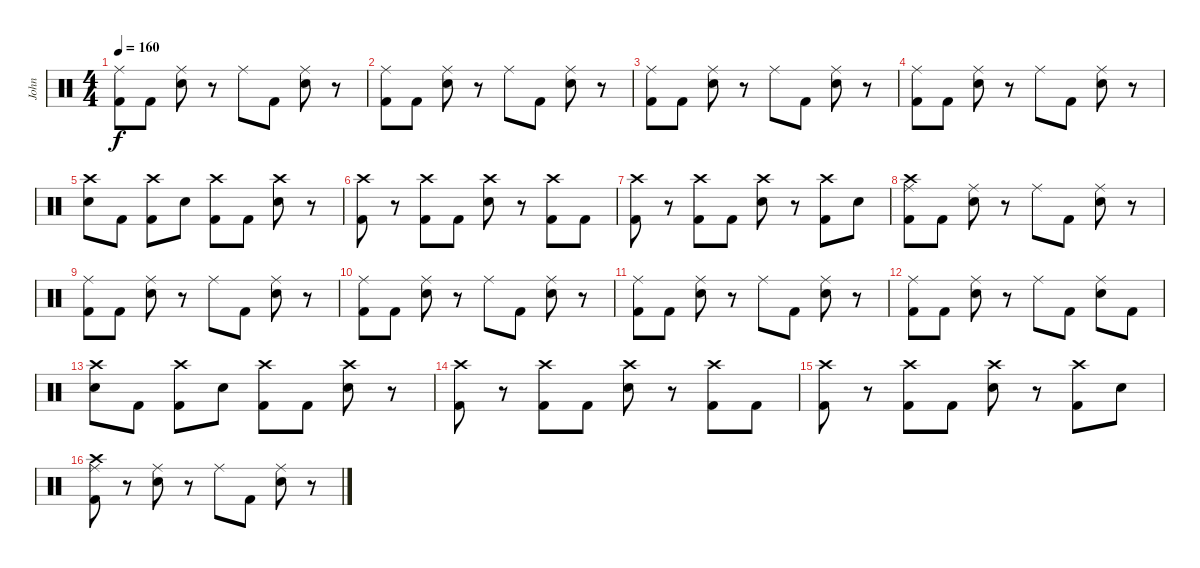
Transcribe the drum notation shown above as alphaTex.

\track ("John" "John") {instrument percussion}
\staff {score}
\articulation defaults
\ts (4 4)
\tempo 160
\clef neutral
\ks c
("Ride (middle)" "Kick (hit) 2").8{dy f} "Kick (hit) 2".8 ("Ride (middle)" "Snare (hit) 2").8 r.8 "Ride (middle)".8 "Kick (hit) 2".8 ("Ride (middle)" "Snare (hit) 2").8 r.8 |
("Ride (middle)" "Kick (hit) 2").8 "Kick (hit) 2".8 ("Ride (middle)" "Snare (hit) 2").8 r.8 "Ride (middle)".8 "Kick (hit) 2".8 ("Ride (middle)" "Snare (hit) 2").8 r.8 |
("Ride (middle)" "Kick (hit) 2").8 "Kick (hit) 2".8 ("Ride (middle)" "Snare (hit) 2").8 r.8 "Ride (middle)".8 "Kick (hit) 2".8 ("Ride (middle)" "Snare (hit) 2").8 r.8 |
("Ride (middle)" "Kick (hit) 2").8 "Kick (hit) 2".8 ("Ride (middle)" "Snare (hit) 2").8 r.8 "Ride (middle)".8 "Kick (hit) 2".8 ("Ride (middle)" "Snare (hit) 2").8 r.8 |
("Crash high (hit)" "Snare (hit) 2").8 "Kick (hit) 2".8 ("Crash high (hit)" "Kick (hit) 2").8 "Snare (hit) 2".8 ("Crash high (hit)" "Kick (hit) 2").8 "Kick (hit) 2".8 ("Crash high (hit)" "Snare (hit) 2").8 r.8 |
("Crash high (hit)" "Kick (hit) 2").8 r.8 ("Crash high (hit)" "Kick (hit) 2").8 "Kick (hit) 2".8 ("Crash high (hit)" "Snare (hit) 2").8 r.8 ("Crash high (hit)" "Kick (hit) 2").8 "Kick (hit) 2".8 |
("Crash high (hit)" "Kick (hit) 2").8 r.8 ("Crash high (hit)" "Kick (hit) 2").8 "Kick (hit) 2".8 ("Crash high (hit)" "Snare (hit) 2").8 r.8 ("Crash high (hit)" "Kick (hit) 2").8 "Snare (hit) 2".8 |
("Ride (middle)" "Crash high (hit)" "Kick (hit) 2").8 "Kick (hit) 2".8 ("Ride (middle)" "Snare (hit) 2").8 r.8 "Ride (middle)".8 "Kick (hit) 2".8 ("Ride (middle)" "Snare (hit) 2").8 r.8 |
("Ride (middle)" "Kick (hit) 2").8 "Kick (hit) 2".8 ("Ride (middle)" "Snare (hit) 2").8 r.8 "Ride (middle)".8 "Kick (hit) 2".8 ("Ride (middle)" "Snare (hit) 2").8 r.8 |
("Ride (middle)" "Kick (hit) 2").8 "Kick (hit) 2".8 ("Ride (middle)" "Snare (hit) 2").8 r.8 "Ride (middle)".8 "Kick (hit) 2".8 ("Ride (middle)" "Snare (hit) 2").8 r.8 |
("Ride (middle)" "Kick (hit) 2").8 "Kick (hit) 2".8 ("Ride (middle)" "Snare (hit) 2").8 r.8 "Ride (middle)".8 "Kick (hit) 2".8 ("Ride (middle)" "Snare (hit) 2").8 r.8 |
("Ride (middle)" "Kick (hit) 2").8 "Kick (hit) 2".8 ("Ride (middle)" "Snare (hit) 2").8 r.8 "Ride (middle)".8 "Kick (hit) 2".8 ("Ride (middle)" "Snare (hit) 2").8 "Kick (hit) 2".8 |
("Crash high (hit)" "Snare (hit) 2").8 "Kick (hit) 2".8 ("Crash high (hit)" "Kick (hit) 2").8 "Snare (hit) 2".8 ("Crash high (hit)" "Kick (hit) 2").8 "Kick (hit) 2".8 ("Crash high (hit)" "Snare (hit) 2").8 r.8 |
("Crash high (hit)" "Kick (hit) 2").8 r.8 ("Crash high (hit)" "Kick (hit) 2").8 "Kick (hit) 2".8 ("Crash high (hit)" "Snare (hit) 2").8 r.8 ("Crash high (hit)" "Kick (hit) 2").8 "Kick (hit) 2".8 |
("Crash high (hit)" "Kick (hit) 2").8 r.8 ("Crash high (hit)" "Kick (hit) 2").8 "Kick (hit) 2".8 ("Crash high (hit)" "Snare (hit) 2").8 r.8 ("Crash high (hit)" "Kick (hit) 2").8 "Snare (hit) 2".8 |
("Ride (middle)" "Crash high (hit)" "Kick (hit) 2").8 r.8 ("Ride (middle)" "Snare (hit) 2").8 r.8 "Ride (middle)".8 "Kick (hit) 2".8 ("Ride (middle)" "Snare (hit) 2").8 r.8
